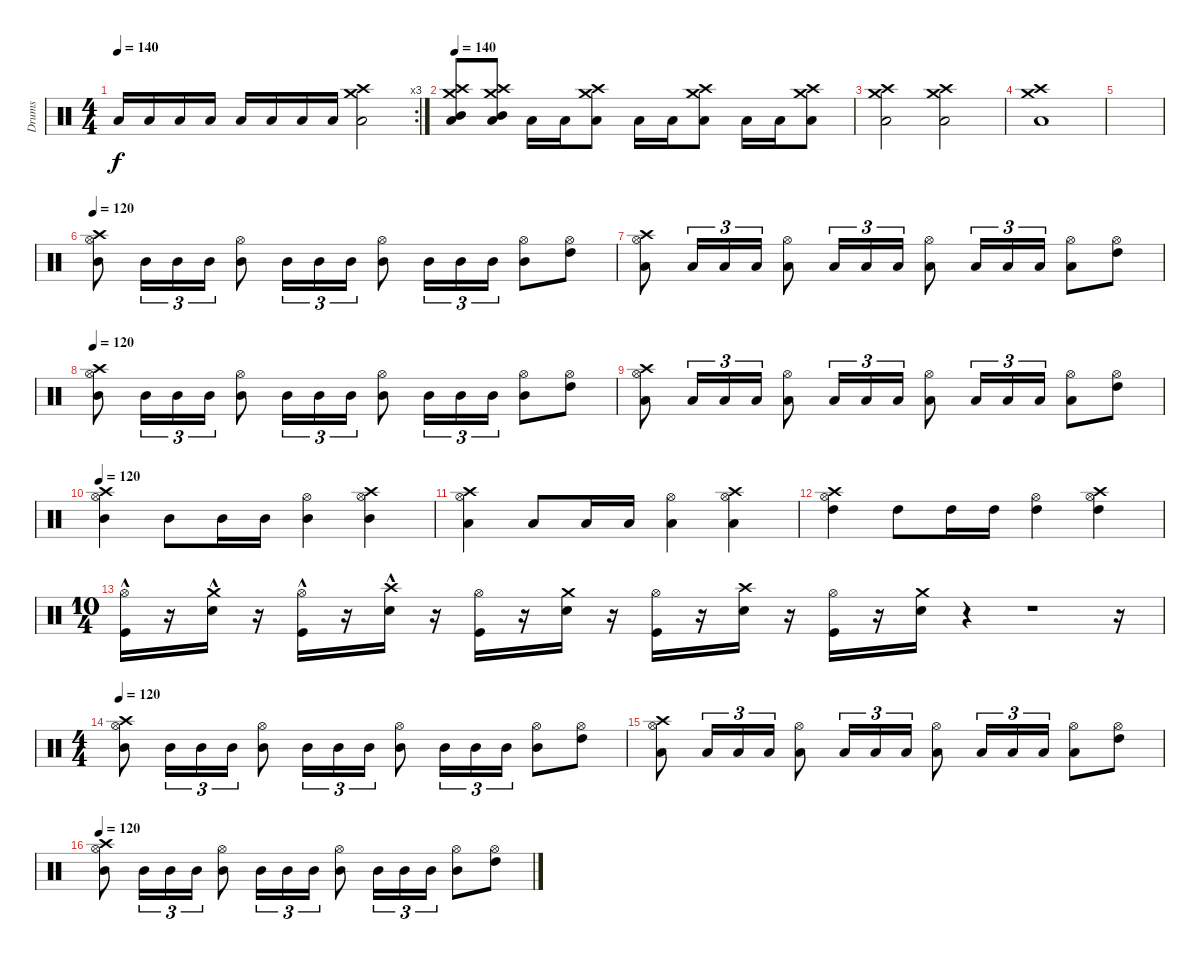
\track ("Drums" "Drums") {instrument percussion}
\staff {score}
\articulation defaults
\rc 3
\ts (4 4)
\tempo 140
\clef neutral
\ks c "Low Tom (hit)".16{dy f} "Low Tom (hit)".16 "Low Tom (hit)".16 "Low Tom (hit)".16 "Low Tom (hit)".16 "Low Tom (hit)".16 "Low Tom (hit)".16 "Low Tom (hit)".16
("Crash high (hit)" "Crash medium (hit)" "Low Tom (hit)").2 |
\tempo 140
("Low Tom (hit)" "Mid Tom (hit)" "Crash high (hit)" "Crash medium (hit)").8 ("Low Tom (hit)" "Mid Tom (hit)" "Crash high (hit)" "Crash medium (hit)").8 "Low Tom (hit)".16 "Low Tom (hit)".16 ("Crash high (hit)" "Crash medium (hit)" "Low Tom (hit)").8 "Low Tom (hit)".16 "Low Tom (hit)".16 ("Crash high (hit)" "Crash medium (hit)" "Low Tom (hit)").8 "Low Tom (hit)".16 "Low Tom (hit)".16 ("Crash high (hit)" "Crash medium (hit)" "Low Tom (hit)").8 |
("Crash high (hit)" "Crash medium (hit)" "Low Tom (hit)").2 ("Crash high (hit)" "Crash medium (hit)" "Low Tom (hit)").2 |
("Crash high (hit)" "Crash medium (hit)" "Low Tom (hit)").1 |
|
\tempo 120
("Hi-Hat (open)" "Mid Tom (hit)" "Crash high (hit)").8 "Mid Tom (hit)".16{tu (3 2)} "Mid Tom (hit)".16{tu (3 2)} "Mid Tom (hit)".16{tu (3 2)} ("Hi-Hat (open)" "Mid Tom (hit)").8 "Mid Tom (hit)".16{tu (3 2)} "Mid Tom (hit)".16{tu (3 2)} "Mid Tom (hit)".16{tu (3 2)} ("Hi-Hat (open)" "Mid Tom (hit)").8 "Mid Tom (hit)".16{tu (3 2)} "Mid Tom (hit)".16{tu (3 2)} "Mid Tom (hit)".16{tu (3 2)} ("Hi-Hat (open)" "Mid Tom (hit)").8 ("Hi-Hat (open)" "High Tom (hit)").8 |
("Hi-Hat (open)" "Low Tom (hit)" "Crash high (hit)").8 "Low Tom (hit)".16{tu (3 2)} "Low Tom (hit)".16{tu (3 2)} "Low Tom (hit)".16{tu (3 2)} ("Hi-Hat (open)" "Low Tom (hit)").8 "Low Tom (hit)".16{tu (3 2)} "Low Tom (hit)".16{tu (3 2)} "Low Tom (hit)".16{tu (3 2)} ("Hi-Hat (open)" "Low Tom (hit)").8 "Low Tom (hit)".16{tu (3 2)} "Low Tom (hit)".16{tu (3 2)} "Low Tom (hit)".16{tu (3 2)} ("Hi-Hat (open)" "Low Tom (hit)").8 ("Hi-Hat (open)" "High Tom (hit)").8 |
\tempo 120
("Hi-Hat (open)" "Mid Tom (hit)" "Crash high (hit)").8 "Mid Tom (hit)".16{tu (3 2)} "Mid Tom (hit)".16{tu (3 2)} "Mid Tom (hit)".16{tu (3 2)} ("Hi-Hat (open)" "Mid Tom (hit)").8 "Mid Tom (hit)".16{tu (3 2)} "Mid Tom (hit)".16{tu (3 2)} "Mid Tom (hit)".16{tu (3 2)} ("Hi-Hat (open)" "Mid Tom (hit)").8 "Mid Tom (hit)".16{tu (3 2)} "Mid Tom (hit)".16{tu (3 2)} "Mid Tom (hit)".16{tu (3 2)} ("Hi-Hat (open)" "Mid Tom (hit)").8 ("Hi-Hat (open)" "High Tom (hit)").8 |
("Hi-Hat (open)" "Low Tom (hit)" "Crash high (hit)").8 "Low Tom (hit)".16{tu (3 2)} "Low Tom (hit)".16{tu (3 2)} "Low Tom (hit)".16{tu (3 2)} ("Hi-Hat (open)" "Low Tom (hit)").8 "Low Tom (hit)".16{tu (3 2)} "Low Tom (hit)".16{tu (3 2)} "Low Tom (hit)".16{tu (3 2)} ("Hi-Hat (open)" "Low Tom (hit)").8 "Low Tom (hit)".16{tu (3 2)} "Low Tom (hit)".16{tu (3 2)} "Low Tom (hit)".16{tu (3 2)} ("Hi-Hat (open)" "Low Tom (hit)").8 ("Hi-Hat (open)" "High Tom (hit)").8 |
\tempo 120
("Hi-Hat (open)" "Mid Tom (hit)" "Crash high (hit)").4 "Mid Tom (hit)".8 "Mid Tom (hit)".16 "Mid Tom (hit)".16 ("Hi-Hat (open)" "Mid Tom (hit)").4 ("Hi-Hat (open)" "Mid Tom (hit)" "Crash high (hit)").4 |
("Hi-Hat (open)" "Low Tom (hit)" "Crash high (hit)").4 "Low Tom (hit)".8 "Low Tom (hit)".16 "Low Tom (hit)".16 ("Hi-Hat (open)" "Low Tom (hit)").4 ("Hi-Hat (open)" "Low Tom (hit)" "Crash high (hit)").4 |
("Hi-Hat (open)" "High Tom (hit)" "Crash high (hit)").4 "High Tom (hit)".8 "High Tom (hit)".16 "High Tom (hit)".16 ("Hi-Hat (open)" "High Tom (hit)").4 ("Hi-Hat (open)" "High Tom (hit)" "Crash high (hit)").4 |
\ts (10 4)
("Hi-Hat (open)" "Kick (hit)"{hac}).16 r.16 ("Crash medium (hit)" "Snare (hit) 2"{hac}).16 r.16 ("Hi-Hat (open)" "Kick (hit)"{hac}).16 r.16 ("Crash high (hit)" "Snare (hit) 2"{hac}).16 r.16 ("Hi-Hat (open)" "Kick (hit)").16 r.16 ("Crash medium (hit)" "Snare (hit) 2").16 r.16 ("Hi-Hat (open)" "Kick (hit)").16 r.16 ("Crash high (hit)" "Snare (hit) 2").16 r.16 ("Hi-Hat (open)" "Kick (hit)").16 r.16 ("Crash medium (hit)" "Snare (hit) 2").16 r.4 r.1 r.16 |
\ts (4 4)
\tempo 120
("Hi-Hat (open)" "Mid Tom (hit)" "Crash high (hit)").8 "Mid Tom (hit)".16{tu (3 2)} "Mid Tom (hit)".16{tu (3 2)} "Mid Tom (hit)".16{tu (3 2)} ("Hi-Hat (open)" "Mid Tom (hit)").8 "Mid Tom (hit)".16{tu (3 2)} "Mid Tom (hit)".16{tu (3 2)} "Mid Tom (hit)".16{tu (3 2)} ("Hi-Hat (open)" "Mid Tom (hit)").8 "Mid Tom (hit)".16{tu (3 2)} "Mid Tom (hit)".16{tu (3 2)} "Mid Tom (hit)".16{tu (3 2)} ("Hi-Hat (open)" "Mid Tom (hit)").8 ("Hi-Hat (open)" "High Tom (hit)").8 |
("Hi-Hat (open)" "Low Tom (hit)" "Crash high (hit)").8 "Low Tom (hit)".16{tu (3 2)} "Low Tom (hit)".16{tu (3 2)} "Low Tom (hit)".16{tu (3 2)} ("Hi-Hat (open)" "Low Tom (hit)").8 "Low Tom (hit)".16{tu (3 2)} "Low Tom (hit)".16{tu (3 2)} "Low Tom (hit)".16{tu (3 2)} ("Hi-Hat (open)" "Low Tom (hit)").8 "Low Tom (hit)".16{tu (3 2)} "Low Tom (hit)".16{tu (3 2)} "Low Tom (hit)".16{tu (3 2)} ("Hi-Hat (open)" "Low Tom (hit)").8 ("Hi-Hat (open)" "High Tom (hit)").8 |
\tempo 120
("Hi-Hat (open)" "Mid Tom (hit)" "Crash high (hit)").8 "Mid Tom (hit)".16{tu (3 2)} "Mid Tom (hit)".16{tu (3 2)} "Mid Tom (hit)".16{tu (3 2)} ("Hi-Hat (open)" "Mid Tom (hit)").8 "Mid Tom (hit)".16{tu (3 2)} "Mid Tom (hit)".16{tu (3 2)} "Mid Tom (hit)".16{tu (3 2)} ("Hi-Hat (open)" "Mid Tom (hit)").8 "Mid Tom (hit)".16{tu (3 2)} "Mid Tom (hit)".16{tu (3 2)} "Mid Tom (hit)".16{tu (3 2)} ("Hi-Hat (open)" "Mid Tom (hit)").8 ("Hi-Hat (open)" "High Tom (hit)").8
